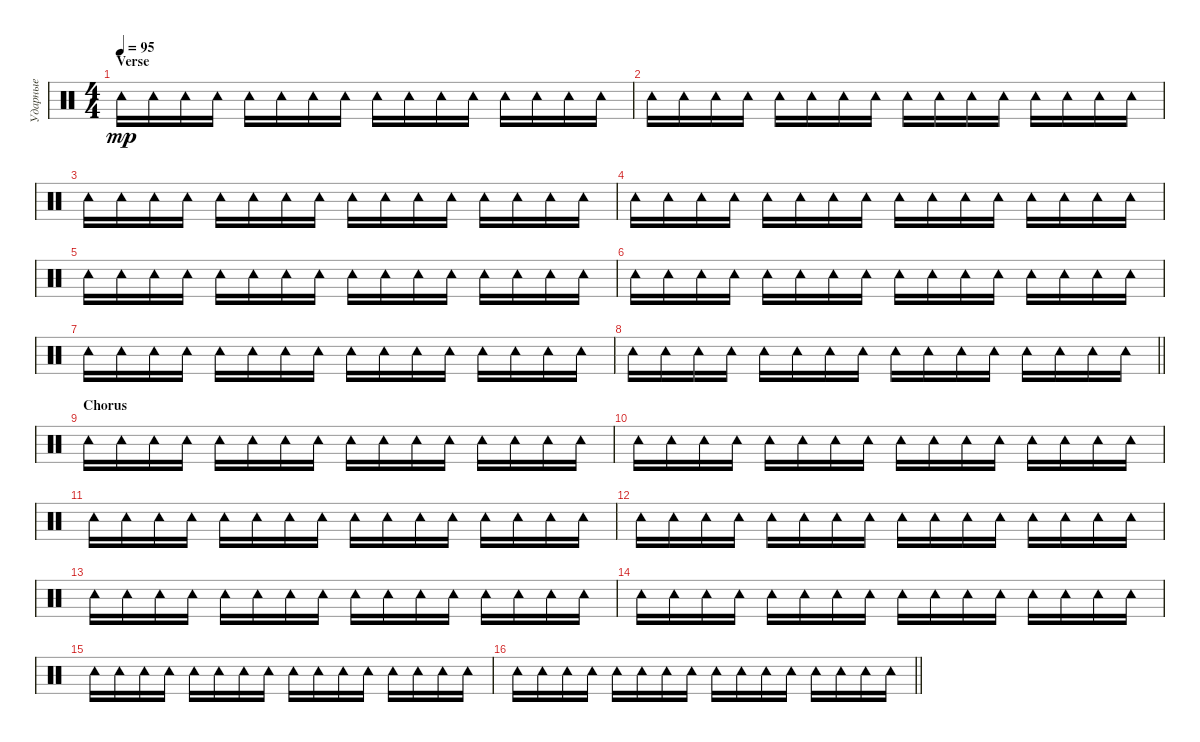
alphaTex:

\track ("Ударные" "Ударные") {instrument percussion}
\staff {score}
\articulation defaults
\ts (4 4)
\section ("" "Verse")
\tempo 95
\clef neutral
\ks c "Tambourine (hit)".16{dy mp} "Tambourine (hit)".16 "Tambourine (hit)".16 "Tambourine (hit)".16 "Tambourine (hit)".16 "Tambourine (hit)".16 "Tambourine (hit)".16 "Tambourine (hit)".16 "Tambourine (hit)".16 "Tambourine (hit)".16 "Tambourine (hit)".16 "Tambourine (hit)".16 "Tambourine (hit)".16 "Tambourine (hit)".16 "Tambourine (hit)".16 "Tambourine (hit)".16
|
"Tambourine (hit)".16 "Tambourine (hit)".16 "Tambourine (hit)".16 "Tambourine (hit)".16 "Tambourine (hit)".16 "Tambourine (hit)".16 "Tambourine (hit)".16 "Tambourine (hit)".16 "Tambourine (hit)".16 "Tambourine (hit)".16 "Tambourine (hit)".16 "Tambourine (hit)".16 "Tambourine (hit)".16 "Tambourine (hit)".16 "Tambourine (hit)".16 "Tambourine (hit)".16 |
"Tambourine (hit)".16 "Tambourine (hit)".16 "Tambourine (hit)".16 "Tambourine (hit)".16 "Tambourine (hit)".16 "Tambourine (hit)".16 "Tambourine (hit)".16 "Tambourine (hit)".16 "Tambourine (hit)".16 "Tambourine (hit)".16 "Tambourine (hit)".16 "Tambourine (hit)".16 "Tambourine (hit)".16 "Tambourine (hit)".16 "Tambourine (hit)".16 "Tambourine (hit)".16 |
"Tambourine (hit)".16 "Tambourine (hit)".16 "Tambourine (hit)".16 "Tambourine (hit)".16 "Tambourine (hit)".16 "Tambourine (hit)".16 "Tambourine (hit)".16 "Tambourine (hit)".16 "Tambourine (hit)".16 "Tambourine (hit)".16 "Tambourine (hit)".16 "Tambourine (hit)".16 "Tambourine (hit)".16 "Tambourine (hit)".16 "Tambourine (hit)".16 "Tambourine (hit)".16 |
"Tambourine (hit)".16 "Tambourine (hit)".16 "Tambourine (hit)".16 "Tambourine (hit)".16 "Tambourine (hit)".16 "Tambourine (hit)".16 "Tambourine (hit)".16 "Tambourine (hit)".16 "Tambourine (hit)".16 "Tambourine (hit)".16 "Tambourine (hit)".16 "Tambourine (hit)".16 "Tambourine (hit)".16 "Tambourine (hit)".16 "Tambourine (hit)".16 "Tambourine (hit)".16 |
"Tambourine (hit)".16 "Tambourine (hit)".16 "Tambourine (hit)".16 "Tambourine (hit)".16 "Tambourine (hit)".16 "Tambourine (hit)".16 "Tambourine (hit)".16 "Tambourine (hit)".16 "Tambourine (hit)".16 "Tambourine (hit)".16 "Tambourine (hit)".16 "Tambourine (hit)".16 "Tambourine (hit)".16 "Tambourine (hit)".16 "Tambourine (hit)".16 "Tambourine (hit)".16 |
"Tambourine (hit)".16 "Tambourine (hit)".16 "Tambourine (hit)".16 "Tambourine (hit)".16 "Tambourine (hit)".16 "Tambourine (hit)".16 "Tambourine (hit)".16 "Tambourine (hit)".16 "Tambourine (hit)".16 "Tambourine (hit)".16 "Tambourine (hit)".16 "Tambourine (hit)".16 "Tambourine (hit)".16 "Tambourine (hit)".16 "Tambourine (hit)".16 "Tambourine (hit)".16 |
\barLineRight lightlight "Tambourine (hit)".16 "Tambourine (hit)".16 "Tambourine (hit)".16 "Tambourine (hit)".16 "Tambourine (hit)".16 "Tambourine (hit)".16 "Tambourine (hit)".16 "Tambourine (hit)".16 "Tambourine (hit)".16 "Tambourine (hit)".16 "Tambourine (hit)".16 "Tambourine (hit)".16 "Tambourine (hit)".16 "Tambourine (hit)".16 "Tambourine (hit)".16 "Tambourine (hit)".16
|
\section ("" "Chorus")
"Tambourine (hit)".16 "Tambourine (hit)".16 "Tambourine (hit)".16 "Tambourine (hit)".16 "Tambourine (hit)".16 "Tambourine (hit)".16 "Tambourine (hit)".16 "Tambourine (hit)".16 "Tambourine (hit)".16 "Tambourine (hit)".16 "Tambourine (hit)".16 "Tambourine (hit)".16 "Tambourine (hit)".16 "Tambourine (hit)".16 "Tambourine (hit)".16 "Tambourine (hit)".16 |
"Tambourine (hit)".16 "Tambourine (hit)".16 "Tambourine (hit)".16 "Tambourine (hit)".16 "Tambourine (hit)".16 "Tambourine (hit)".16 "Tambourine (hit)".16 "Tambourine (hit)".16 "Tambourine (hit)".16 "Tambourine (hit)".16 "Tambourine (hit)".16 "Tambourine (hit)".16 "Tambourine (hit)".16 "Tambourine (hit)".16 "Tambourine (hit)".16 "Tambourine (hit)".16 |
"Tambourine (hit)".16 "Tambourine (hit)".16 "Tambourine (hit)".16 "Tambourine (hit)".16 "Tambourine (hit)".16 "Tambourine (hit)".16 "Tambourine (hit)".16 "Tambourine (hit)".16 "Tambourine (hit)".16 "Tambourine (hit)".16 "Tambourine (hit)".16 "Tambourine (hit)".16 "Tambourine (hit)".16 "Tambourine (hit)".16 "Tambourine (hit)".16 "Tambourine (hit)".16 |
"Tambourine (hit)".16 "Tambourine (hit)".16 "Tambourine (hit)".16 "Tambourine (hit)".16 "Tambourine (hit)".16 "Tambourine (hit)".16 "Tambourine (hit)".16 "Tambourine (hit)".16 "Tambourine (hit)".16 "Tambourine (hit)".16 "Tambourine (hit)".16 "Tambourine (hit)".16 "Tambourine (hit)".16 "Tambourine (hit)".16 "Tambourine (hit)".16 "Tambourine (hit)".16 |
"Tambourine (hit)".16 "Tambourine (hit)".16 "Tambourine (hit)".16 "Tambourine (hit)".16 "Tambourine (hit)".16 "Tambourine (hit)".16 "Tambourine (hit)".16 "Tambourine (hit)".16 "Tambourine (hit)".16 "Tambourine (hit)".16 "Tambourine (hit)".16 "Tambourine (hit)".16 "Tambourine (hit)".16 "Tambourine (hit)".16 "Tambourine (hit)".16 "Tambourine (hit)".16 |
"Tambourine (hit)".16 "Tambourine (hit)".16 "Tambourine (hit)".16 "Tambourine (hit)".16 "Tambourine (hit)".16 "Tambourine (hit)".16 "Tambourine (hit)".16 "Tambourine (hit)".16 "Tambourine (hit)".16 "Tambourine (hit)".16 "Tambourine (hit)".16 "Tambourine (hit)".16 "Tambourine (hit)".16 "Tambourine (hit)".16 "Tambourine (hit)".16 "Tambourine (hit)".16 |
"Tambourine (hit)".16 "Tambourine (hit)".16 "Tambourine (hit)".16 "Tambourine (hit)".16 "Tambourine (hit)".16 "Tambourine (hit)".16 "Tambourine (hit)".16 "Tambourine (hit)".16 "Tambourine (hit)".16 "Tambourine (hit)".16 "Tambourine (hit)".16 "Tambourine (hit)".16 "Tambourine (hit)".16 "Tambourine (hit)".16 "Tambourine (hit)".16 "Tambourine (hit)".16 |
\barLineRight lightlight "Tambourine (hit)".16 "Tambourine (hit)".16 "Tambourine (hit)".16 "Tambourine (hit)".16 "Tambourine (hit)".16 "Tambourine (hit)".16 "Tambourine (hit)".16 "Tambourine (hit)".16 "Tambourine (hit)".16 "Tambourine (hit)".16 "Tambourine (hit)".16 "Tambourine (hit)".16 "Tambourine (hit)".16 "Tambourine (hit)".16 "Tambourine (hit)".16 "Tambourine (hit)".16
